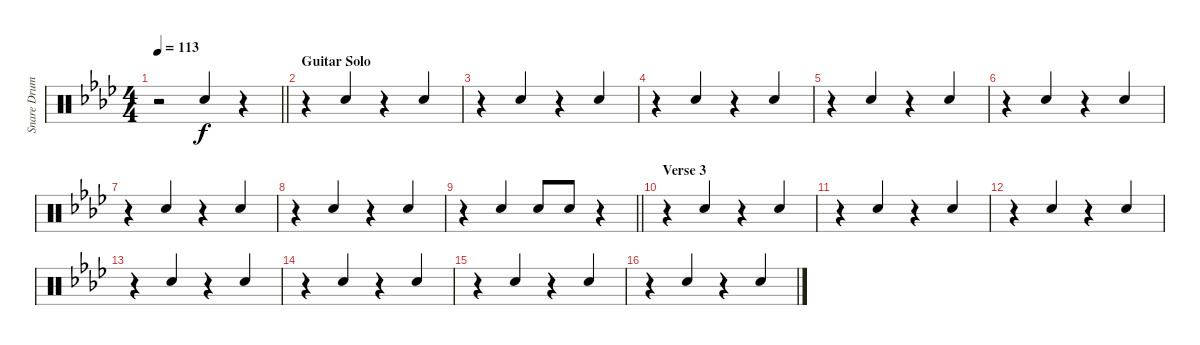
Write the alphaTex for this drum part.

\track ("Snare Drum - reverb" "Snare Drum") {instrument percussion}
\staff {score}
\articulation defaults
\ts (4 4)
\tempo 113
\clef neutral
\barLineRight lightlight
\ks fminor
r.2{dy f} "Snare (hit) 2".4{beam Up} r.4 |
\section ("" "Guitar Solo")
r.4 "Snare (hit) 2".4{beam Up} r.4 "Snare (hit) 2".4{beam Up} |
r.4 "Snare (hit) 2".4{beam Up} r.4 "Snare (hit) 2".4{beam Up} |
r.4 "Snare (hit) 2".4{beam Up} r.4 "Snare (hit) 2".4{beam Up} |
r.4 "Snare (hit) 2".4{beam Up} r.4 "Snare (hit) 2".4{beam Up} |
r.4 "Snare (hit) 2".4{beam Up} r.4 "Snare (hit) 2".4{beam Up} |
r.4 "Snare (hit) 2".4{beam Up} r.4 "Snare (hit) 2".4{beam Up} |
r.4 "Snare (hit) 2".4{beam Up} r.4 "Snare (hit) 2".4{beam Up} |
\barLineRight lightlight
r.4 "Snare (hit) 2".4{beam Up} "Snare (hit) 2".8{beam Up} "Snare (hit) 2".8{beam Up} r.4 |
\section ("" "Verse 3")
r.4 "Snare (hit) 2".4{beam Up} r.4 "Snare (hit) 2".4{beam Up} |
r.4 "Snare (hit) 2".4{beam Up} r.4 "Snare (hit) 2".4{beam Up} |
r.4 "Snare (hit) 2".4{beam Up} r.4 "Snare (hit) 2".4{beam Up} |
r.4 "Snare (hit) 2".4{beam Up} r.4 "Snare (hit) 2".4{beam Up} |
r.4 "Snare (hit) 2".4{beam Up} r.4 "Snare (hit) 2".4{beam Up} |
r.4 "Snare (hit) 2".4{beam Up} r.4 "Snare (hit) 2".4{beam Up} |
r.4 "Snare (hit) 2".4{beam Up} r.4 "Snare (hit) 2".4{beam Up}
